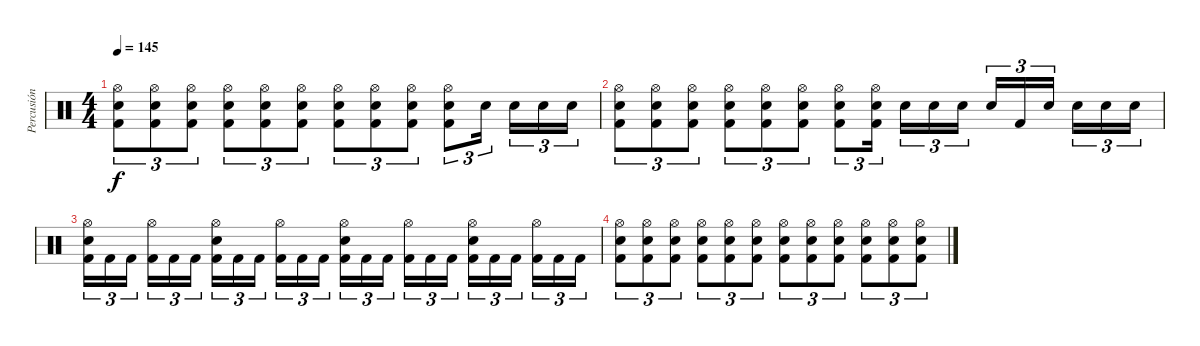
\track ("Percusión" "Percusión") {instrument percussion}
\staff {score}
\articulation defaults
\ts (4 4)
\tempo 145
\clef neutral
\ks c
("Hi-Hat (open)" "Electric Snare (hit)" "Kick (hit) 2").8{tu (3 2) dy f} ("Hi-Hat (open)" "Electric Snare (hit)" "Kick (hit) 2").8{tu (3 2)} ("Hi-Hat (open)" "Electric Snare (hit)" "Kick (hit) 2").8{tu (3 2)} ("Hi-Hat (open)" "Electric Snare (hit)" "Kick (hit) 2").8{tu (3 2)} ("Hi-Hat (open)" "Electric Snare (hit)" "Kick (hit) 2").8{tu (3 2)} ("Hi-Hat (open)" "Electric Snare (hit)" "Kick (hit) 2").8{tu (3 2)} ("Hi-Hat (open)" "Electric Snare (hit)" "Kick (hit) 2").8{tu (3 2)} ("Hi-Hat (open)" "Electric Snare (hit)" "Kick (hit) 2").8{tu (3 2)} ("Hi-Hat (open)" "Electric Snare (hit)" "Kick (hit) 2").8{tu (3 2)} ("Hi-Hat (open)" "Electric Snare (hit)" "Kick (hit) 2").8{tu (3 2)} "Electric Snare (hit)".16{tu (3 2)} "Electric Snare (hit)".16{tu (3 2)} "Electric Snare (hit)".16{tu (3 2)} "Electric Snare (hit)".16{tu (3 2)} |
("Hi-Hat (open)" "Electric Snare (hit)" "Kick (hit) 2").8{tu (3 2)} ("Hi-Hat (open)" "Electric Snare (hit)" "Kick (hit) 2").8{tu (3 2)} ("Hi-Hat (open)" "Electric Snare (hit)" "Kick (hit) 2").8{tu (3 2)} ("Hi-Hat (open)" "Electric Snare (hit)" "Kick (hit) 2").8{tu (3 2)} ("Hi-Hat (open)" "Electric Snare (hit)" "Kick (hit) 2").8{tu (3 2)} ("Hi-Hat (open)" "Electric Snare (hit)" "Kick (hit) 2").8{tu (3 2)} ("Hi-Hat (open)" "Electric Snare (hit)" "Kick (hit) 2").8{tu (3 2)} ("Hi-Hat (open)" "Electric Snare (hit)" "Kick (hit) 2").16{tu (3 2)} "Electric Snare (hit)".16{tu (3 2)} "Electric Snare (hit)".16{tu (3 2)} "Electric Snare (hit)".16{tu (3 2)} "Electric Snare (hit)".16{tu (3 2)} "Kick (hit) 2".16{tu (3 2)} "Electric Snare (hit)".16{tu (3 2)} "Electric Snare (hit)".16{tu (3 2)} "Electric Snare (hit)".16{tu (3 2)} "Electric Snare (hit)".16{tu (3 2)} |
("Hi-Hat (open)" "Electric Snare (hit)" "Kick (hit) 2").16{tu (3 2)} "Kick (hit) 2".16{tu (3 2)} "Kick (hit) 2".16{tu (3 2)} ("Hi-Hat (open)" "Kick (hit) 2").16{tu (3 2)} "Kick (hit) 2".16{tu (3 2)} "Kick (hit) 2".16{tu (3 2)} ("Hi-Hat (open)" "Electric Snare (hit)" "Kick (hit) 2").16{tu (3 2)} "Kick (hit) 2".16{tu (3 2)} "Kick (hit) 2".16{tu (3 2)} ("Hi-Hat (open)" "Kick (hit) 2").16{tu (3 2)} "Kick (hit) 2".16{tu (3 2)} "Kick (hit) 2".16{tu (3 2)} ("Hi-Hat (open)" "Electric Snare (hit)" "Kick (hit) 2").16{tu (3 2)} "Kick (hit) 2".16{tu (3 2)} "Kick (hit) 2".16{tu (3 2)} ("Hi-Hat (open)" "Kick (hit) 2").16{tu (3 2)} "Kick (hit) 2".16{tu (3 2)} "Kick (hit) 2".16{tu (3 2)} ("Hi-Hat (open)" "Electric Snare (hit)" "Kick (hit) 2").16{tu (3 2)} "Kick (hit) 2".16{tu (3 2)} "Kick (hit) 2".16{tu (3 2)} ("Hi-Hat (open)" "Kick (hit) 2").16{tu (3 2)} "Kick (hit) 2".16{tu (3 2)} "Kick (hit) 2".16{tu (3 2)} |
("Hi-Hat (open)" "Electric Snare (hit)" "Kick (hit) 2").8{tu (3 2)} ("Hi-Hat (open)" "Electric Snare (hit)" "Kick (hit) 2").8{tu (3 2)} ("Hi-Hat (open)" "Electric Snare (hit)" "Kick (hit) 2").8{tu (3 2)} ("Hi-Hat (open)" "Electric Snare (hit)" "Kick (hit) 2").8{tu (3 2)} ("Hi-Hat (open)" "Electric Snare (hit)" "Kick (hit) 2").8{tu (3 2)} ("Hi-Hat (open)" "Electric Snare (hit)" "Kick (hit) 2").8{tu (3 2)} ("Hi-Hat (open)" "Electric Snare (hit)" "Kick (hit) 2").8{tu (3 2)} ("Hi-Hat (open)" "Electric Snare (hit)" "Kick (hit) 2").8{tu (3 2)} ("Hi-Hat (open)" "Electric Snare (hit)" "Kick (hit) 2").8{tu (3 2)} ("Hi-Hat (open)" "Electric Snare (hit)" "Kick (hit) 2").8{tu (3 2)} ("Hi-Hat (open)" "Electric Snare (hit)" "Kick (hit) 2").8{tu (3 2)} ("Hi-Hat (open)" "Electric Snare (hit)" "Kick (hit) 2").8{tu (3 2)}
